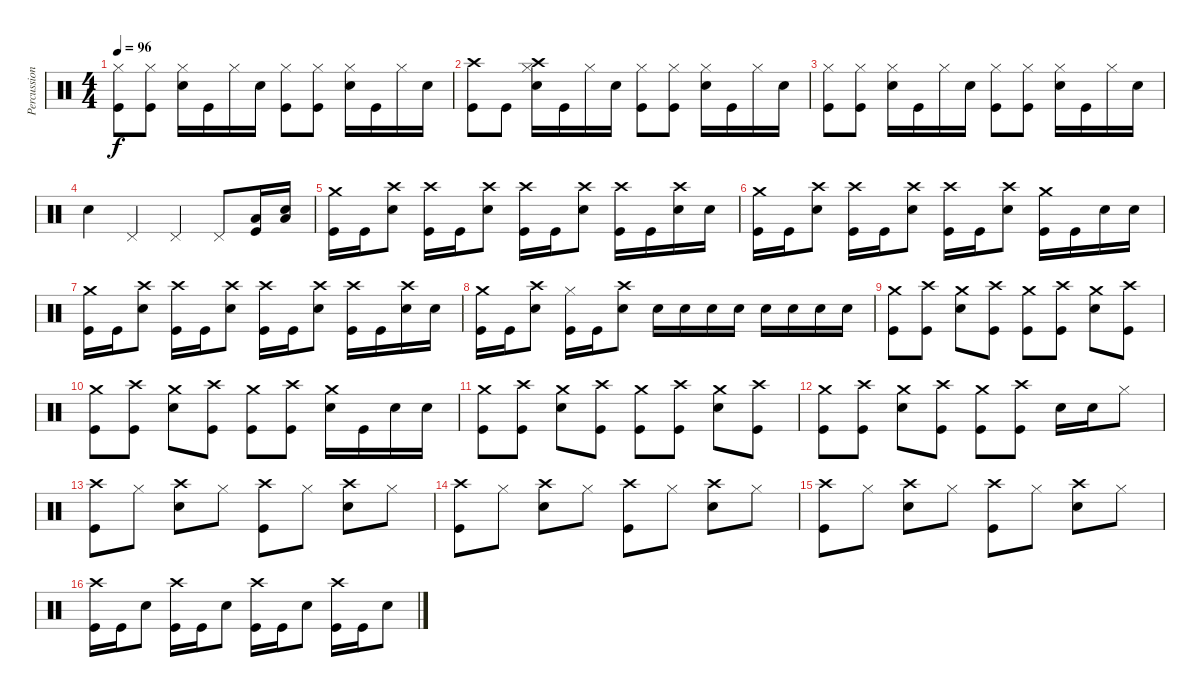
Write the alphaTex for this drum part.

\track ("Percussions" "Percussion") {instrument percussion}
\staff {score}
\articulation defaults
\ts (4 4)
\tempo 96
\clef neutral
\ks c
("Hi-Hat (closed)" "Kick (hit)").8{dy f} ("Hi-Hat (closed)" "Kick (hit)").8 ("Hi-Hat (closed)" "Snare (hit) 2").16 "Kick (hit)".16 "Hi-Hat (closed)".16 "Snare (hit) 2".16 ("Hi-Hat (closed)" "Kick (hit)").8 ("Hi-Hat (closed)" "Kick (hit)").8 ("Hi-Hat (closed)" "Snare (hit) 2").16 "Kick (hit)".16 "Hi-Hat (closed)".16 "Snare (hit) 2".16 |
("Crash high (hit)" "Kick (hit)").8 "Kick (hit)".8 ("Crash high (hit)" "Hi-Hat (closed)" "Snare (hit) 2").16 "Kick (hit)".16 "Hi-Hat (closed)".16 "Snare (hit) 2".16 ("Hi-Hat (closed)" "Kick (hit)").8 ("Hi-Hat (closed)" "Kick (hit)").8 ("Hi-Hat (closed)" "Snare (hit) 2").16 "Kick (hit)".16 "Hi-Hat (closed)".16 "Snare (hit) 2".16 |
("Hi-Hat (closed)" "Kick (hit)").8 ("Hi-Hat (closed)" "Kick (hit)").8 ("Hi-Hat (closed)" "Snare (hit) 2").16 "Kick (hit)".16 "Hi-Hat (closed)".16 "Snare (hit) 2".16 ("Hi-Hat (closed)" "Kick (hit)").8 ("Hi-Hat (closed)" "Kick (hit)").8 ("Hi-Hat (closed)" "Snare (hit) 2").16 "Kick (hit)".16 "Hi-Hat (closed)".16 "Snare (hit) 2".16 |
"Snare (hit) 2".4 "Pedal Hi-Hat (hit)".4 "Pedal Hi-Hat (hit)".4 "Pedal Hi-Hat (hit)".8 ("Low Floor Tom (hit)" "Kick (hit)").16 ("Low Floor Tom (hit)" "Snare (hit) 2").16 |
("Crash medium (hit)" "Kick (hit)").16 "Kick (hit)".16 ("Crash high (hit)" "Snare (hit) 2").8 ("Crash high (hit)" "Kick (hit)").16 "Kick (hit)".16 ("Crash high (hit)" "Snare (hit) 2").8 ("Crash high (hit)" "Kick (hit)").16 "Kick (hit)".16 ("Crash high (hit)" "Snare (hit) 2").8 ("Crash high (hit)" "Kick (hit)").16 "Kick (hit)".16 ("Crash high (hit)" "Snare (hit) 2").16 "Snare (hit) 2".16 |
("Crash medium (hit)" "Kick (hit)").16 "Kick (hit)".16 ("Crash high (hit)" "Snare (hit) 2").8 ("Crash high (hit)" "Kick (hit)").16 "Kick (hit)".16 ("Crash high (hit)" "Snare (hit) 2").8 ("Crash high (hit)" "Kick (hit)").16 "Kick (hit)".16 ("Crash high (hit)" "Snare (hit) 2").8 ("Crash medium (hit)" "Kick (hit)").16 "Kick (hit)".16 "Snare (hit) 2".16 "Snare (hit) 2".16 |
("Crash medium (hit)" "Kick (hit)").16 "Kick (hit)".16 ("Crash high (hit)" "Snare (hit) 2").8 ("Crash high (hit)" "Kick (hit)").16 "Kick (hit)".16 ("Crash high (hit)" "Snare (hit) 2").8 ("Crash high (hit)" "Kick (hit)").16 "Kick (hit)".16 ("Crash high (hit)" "Snare (hit) 2").8 ("Crash high (hit)" "Kick (hit)").16 "Kick (hit)".16 ("Crash high (hit)" "Snare (hit) 2").16 "Snare (hit) 2".16 |
("Crash medium (hit)" "Kick (hit)").16 "Kick (hit)".16 ("Crash high (hit)" "Snare (hit) 2").8 ("Hi-Hat (closed)" "Kick (hit)").16 "Kick (hit)".16 ("Crash high (hit)" "Snare (hit) 2").8 "Snare (hit) 2".16 "Snare (hit) 2".16 "Snare (hit) 2".16 "Snare (hit) 2".16 "Snare (hit) 2".16 "Snare (hit) 2".16 "Snare (hit) 2".16 "Snare (hit) 2".16 |
("Crash medium (hit)" "Kick (hit)").8 ("Crash high (hit)" "Kick (hit)").8 ("Crash medium (hit)" "Snare (hit) 2").8 ("Crash high (hit)" "Kick (hit)").8 ("Crash medium (hit)" "Kick (hit)").8 ("Crash high (hit)" "Kick (hit)").8 ("Crash medium (hit)" "Snare (hit) 2").8 ("Crash high (hit)" "Kick (hit)").8 |
("Crash medium (hit)" "Kick (hit)").8 ("Crash high (hit)" "Kick (hit)").8 ("Crash medium (hit)" "Snare (hit) 2").8 ("Crash high (hit)" "Kick (hit)").8 ("Crash medium (hit)" "Kick (hit)").8 ("Crash high (hit)" "Kick (hit)").8 ("Crash medium (hit)" "Snare (hit) 2").16 "Kick (hit)".16 "Snare (hit) 2".16 "Snare (hit) 2".16 |
("Crash medium (hit)" "Kick (hit)").8 ("Crash high (hit)" "Kick (hit)").8 ("Crash medium (hit)" "Snare (hit) 2").8 ("Crash high (hit)" "Kick (hit)").8 ("Crash medium (hit)" "Kick (hit)").8 ("Crash high (hit)" "Kick (hit)").8 ("Crash medium (hit)" "Snare (hit) 2").8 ("Crash high (hit)" "Kick (hit)").8 |
("Crash medium (hit)" "Kick (hit)").8 ("Crash high (hit)" "Kick (hit)").8 ("Crash medium (hit)" "Snare (hit) 2").8 ("Crash high (hit)" "Kick (hit)").8 ("Crash medium (hit)" "Kick (hit)").8 ("Crash high (hit)" "Kick (hit)").8 "Snare (hit) 2".16 "Snare (hit) 2".16 "Hi-Hat (closed)".8 |
("Crash high (hit)" "Kick (hit)").8 "Hi-Hat (closed)".8 ("Crash high (hit)" "Snare (hit) 2").8 "Hi-Hat (closed)".8 ("Crash high (hit)" "Kick (hit)").8 "Hi-Hat (closed)".8 ("Crash high (hit)" "Snare (hit) 2").8 "Hi-Hat (closed)".8 |
("Crash high (hit)" "Kick (hit)").8 "Hi-Hat (closed)".8 ("Crash high (hit)" "Snare (hit) 2").8 "Hi-Hat (closed)".8 ("Crash high (hit)" "Kick (hit)").8 "Hi-Hat (closed)".8 ("Crash high (hit)" "Snare (hit) 2").8 "Hi-Hat (closed)".8 |
("Crash high (hit)" "Kick (hit)").8 "Hi-Hat (closed)".8 ("Crash high (hit)" "Snare (hit) 2").8 "Hi-Hat (closed)".8 ("Crash high (hit)" "Kick (hit)").8 "Hi-Hat (closed)".8 ("Crash high (hit)" "Snare (hit) 2").8 "Hi-Hat (closed)".8 |
("Crash high (hit)" "Kick (hit)").16 "Kick (hit)".16 "Snare (hit) 2".8 ("Crash high (hit)" "Kick (hit)").16 "Kick (hit)".16 "Snare (hit) 2".8 ("Crash high (hit)" "Kick (hit)").16 "Kick (hit)".16 "Snare (hit) 2".8 ("Crash high (hit)" "Kick (hit)").16 "Kick (hit)".16 "Snare (hit) 2".8
